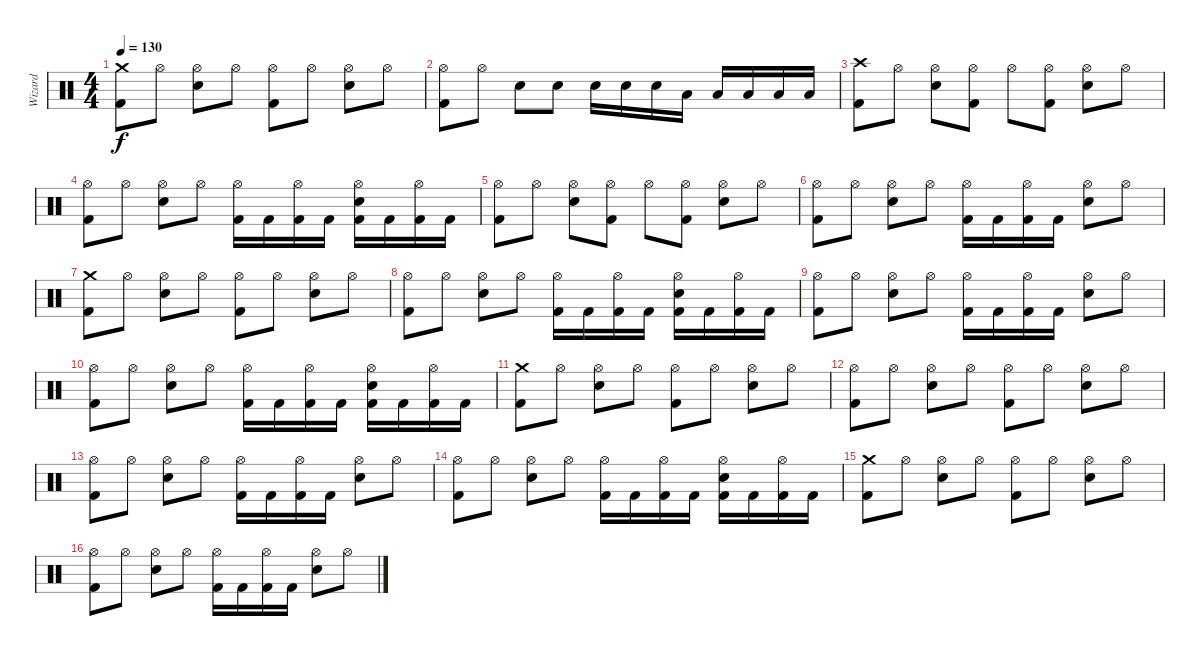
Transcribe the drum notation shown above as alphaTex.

\track ("Wizard" "Wizard") {instrument percussion}
\staff {score}
\articulation defaults
\ts (4 4)
\tempo 130
\clef neutral
\ks c
("Crash medium (hit)" "Kick (hit) 2").8{dy f} "Hi-Hat (open)".8 ("Hi-Hat (open)" "Snare (hit) 2").8 "Hi-Hat (open)".8 ("Hi-Hat (open)" "Kick (hit) 2").8 "Hi-Hat (open)".8 ("Hi-Hat (open)" "Snare (hit) 2").8 "Hi-Hat (open)".8 |
("Hi-Hat (open)" "Kick (hit) 2").8 "Hi-Hat (open)".8 "Snare (hit) 2".8 "Snare (hit) 2".8 "Snare (hit) 2".16 "Snare (hit) 2".16 "Snare (hit) 2".16 "Low Tom (hit)".16 "Low Tom (hit)".16 "Low Tom (hit)".16 "Low Tom (hit)".16 "Low Tom (hit)".16 |
("Crash high (hit)" "Kick (hit) 2").8 "Hi-Hat (open)".8 ("Hi-Hat (open)" "Snare (hit) 2").8 ("Hi-Hat (open)" "Kick (hit) 2").8 "Hi-Hat (open)".8 ("Hi-Hat (open)" "Kick (hit) 2").8 ("Hi-Hat (open)" "Snare (hit) 2").8 "Hi-Hat (open)".8 |
("Hi-Hat (open)" "Kick (hit) 2").8 "Hi-Hat (open)".8 ("Hi-Hat (open)" "Snare (hit) 2").8 "Hi-Hat (open)".8 ("Hi-Hat (open)" "Kick (hit) 2").16 "Kick (hit) 2".16 ("Hi-Hat (open)" "Kick (hit) 2").16 "Kick (hit) 2".16 ("Hi-Hat (open)" "Snare (hit) 2" "Kick (hit) 2").16 "Kick (hit) 2".16 ("Hi-Hat (open)" "Kick (hit) 2").16 "Kick (hit) 2".16 |
("Hi-Hat (open)" "Kick (hit) 2").8 "Hi-Hat (open)".8 ("Hi-Hat (open)" "Snare (hit) 2").8 ("Hi-Hat (open)" "Kick (hit) 2").8 "Hi-Hat (open)".8 ("Hi-Hat (open)" "Kick (hit) 2").8 ("Hi-Hat (open)" "Snare (hit) 2").8 "Hi-Hat (open)".8 |
("Hi-Hat (open)" "Kick (hit) 2").8 "Hi-Hat (open)".8 ("Hi-Hat (open)" "Snare (hit) 2").8 "Hi-Hat (open)".8 ("Hi-Hat (open)" "Kick (hit) 2").16 "Kick (hit) 2".16 ("Hi-Hat (open)" "Kick (hit) 2").16 "Kick (hit) 2".16 ("Hi-Hat (open)" "Snare (hit) 2").8 "Hi-Hat (open)".8 |
("Crash medium (hit)" "Kick (hit) 2").8 "Hi-Hat (open)".8 ("Hi-Hat (open)" "Snare (hit) 2").8 "Hi-Hat (open)".8 ("Hi-Hat (open)" "Kick (hit) 2").8 "Hi-Hat (open)".8 ("Hi-Hat (open)" "Snare (hit) 2").8 "Hi-Hat (open)".8 |
("Hi-Hat (open)" "Kick (hit) 2").8 "Hi-Hat (open)".8 ("Hi-Hat (open)" "Snare (hit) 2").8 "Hi-Hat (open)".8 ("Hi-Hat (open)" "Kick (hit) 2").16 "Kick (hit) 2".16 ("Hi-Hat (open)" "Kick (hit) 2").16 "Kick (hit) 2".16 ("Hi-Hat (open)" "Snare (hit) 2" "Kick (hit) 2").16 "Kick (hit) 2".16 ("Hi-Hat (open)" "Kick (hit) 2").16 "Kick (hit) 2".16 |
("Hi-Hat (open)" "Kick (hit) 2").8 "Hi-Hat (open)".8 ("Hi-Hat (open)" "Snare (hit) 2").8 "Hi-Hat (open)".8 ("Hi-Hat (open)" "Kick (hit) 2").16 "Kick (hit) 2".16 ("Hi-Hat (open)" "Kick (hit) 2").16 "Kick (hit) 2".16 ("Hi-Hat (open)" "Snare (hit) 2").8 "Hi-Hat (open)".8 |
("Hi-Hat (open)" "Kick (hit) 2").8 "Hi-Hat (open)".8 ("Hi-Hat (open)" "Snare (hit) 2").8 "Hi-Hat (open)".8 ("Hi-Hat (open)" "Kick (hit) 2").16 "Kick (hit) 2".16 ("Hi-Hat (open)" "Kick (hit) 2").16 "Kick (hit) 2".16 ("Hi-Hat (open)" "Snare (hit) 2" "Kick (hit) 2").16 "Kick (hit) 2".16 ("Hi-Hat (open)" "Kick (hit) 2").16 "Kick (hit) 2".16 |
("Crash medium (hit)" "Kick (hit) 2").8 "Hi-Hat (open)".8 ("Hi-Hat (open)" "Snare (hit) 2").8 "Hi-Hat (open)".8 ("Hi-Hat (open)" "Kick (hit) 2").8 "Hi-Hat (open)".8 ("Hi-Hat (open)" "Snare (hit) 2").8 "Hi-Hat (open)".8 |
("Hi-Hat (open)" "Kick (hit) 2").8 "Hi-Hat (open)".8 ("Hi-Hat (open)" "Snare (hit) 2").8 "Hi-Hat (open)".8 ("Hi-Hat (open)" "Kick (hit) 2").8 "Hi-Hat (open)".8 ("Hi-Hat (open)" "Snare (hit) 2").8 "Hi-Hat (open)".8 |
("Hi-Hat (open)" "Kick (hit) 2").8 "Hi-Hat (open)".8 ("Hi-Hat (open)" "Snare (hit) 2").8 "Hi-Hat (open)".8 ("Hi-Hat (open)" "Kick (hit) 2").16 "Kick (hit) 2".16 ("Hi-Hat (open)" "Kick (hit) 2").16 "Kick (hit) 2".16 ("Hi-Hat (open)" "Snare (hit) 2").8 "Hi-Hat (open)".8 |
("Hi-Hat (open)" "Kick (hit) 2").8 "Hi-Hat (open)".8 ("Hi-Hat (open)" "Snare (hit) 2").8 "Hi-Hat (open)".8 ("Hi-Hat (open)" "Kick (hit) 2").16 "Kick (hit) 2".16 ("Hi-Hat (open)" "Kick (hit) 2").16 "Kick (hit) 2".16 ("Hi-Hat (open)" "Snare (hit) 2" "Kick (hit) 2").16 "Kick (hit) 2".16 ("Hi-Hat (open)" "Kick (hit) 2").16 "Kick (hit) 2".16 |
("Crash medium (hit)" "Kick (hit) 2").8 "Hi-Hat (open)".8 ("Hi-Hat (open)" "Snare (hit) 2").8 "Hi-Hat (open)".8 ("Hi-Hat (open)" "Kick (hit) 2").8 "Hi-Hat (open)".8 ("Hi-Hat (open)" "Snare (hit) 2").8 "Hi-Hat (open)".8 |
("Hi-Hat (open)" "Kick (hit) 2").8 "Hi-Hat (open)".8 ("Hi-Hat (open)" "Snare (hit) 2").8 "Hi-Hat (open)".8 ("Hi-Hat (open)" "Kick (hit) 2").16 "Kick (hit) 2".16 ("Hi-Hat (open)" "Kick (hit) 2").16 "Kick (hit) 2".16 ("Hi-Hat (open)" "Snare (hit) 2").8 "Hi-Hat (open)".8
